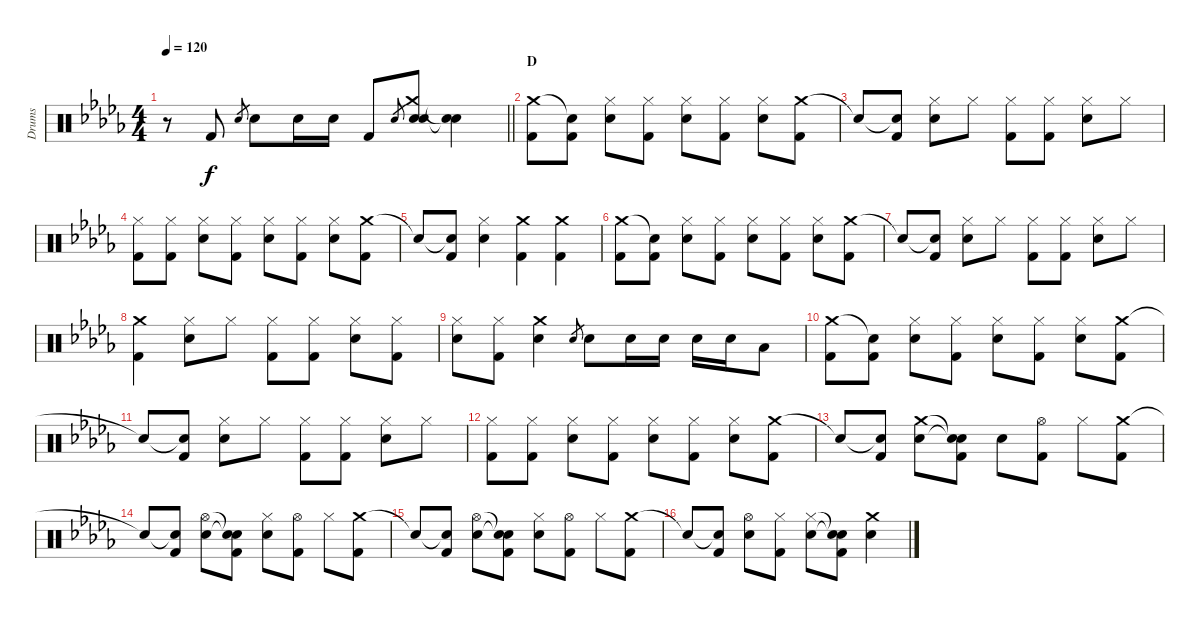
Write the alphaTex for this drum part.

\track ("Drums" "Drums") {instrument percussion}
\staff {score}
\articulation defaults
\ts (4 4)
\tempo 120
\clef neutral
\barLineRight lightlight
\ks db
r.8{dy f} "Kick (hit) 2".8 "Electric Snare (hit)".8{gr} "Electric Snare (hit)".8 "Electric Snare (hit)".16 "Electric Snare (hit)".16 "Kick (hit) 2".8 "Electric Snare (hit)".8{gr} ("Crash medium (hit)" "Electric Snare (hit)" "Snare (hit)").8 ("Snare (hit)"{t} "Snare (hit)"{t}).4 |
\section ("" "D")
("Crash medium (hit)" "Kick (hit) 2").8 ("Snare (hit)"{t} "Kick (hit) 2").8 ("Hi-Hat (closed)" "Electric Snare (hit)").8 ("Hi-Hat (closed)" "Kick (hit) 2").8 ("Hi-Hat (closed)" "Electric Snare (hit)").8 ("Hi-Hat (closed)" "Kick (hit) 2").8 ("Hi-Hat (closed)" "Electric Snare (hit)").8 ("Crash medium (hit)" "Kick (hit) 2").8 |
"Snare (hit)"{t}.8 ("Snare (hit)"{t} "Kick (hit) 2").8 ("Hi-Hat (closed)" "Electric Snare (hit)").8 "Hi-Hat (closed)".8 ("Hi-Hat (closed)" "Kick (hit) 2").8 ("Hi-Hat (closed)" "Kick (hit) 2").8 ("Hi-Hat (closed)" "Electric Snare (hit)").8 "Hi-Hat (closed)".8 |
("Hi-Hat (closed)" "Kick (hit) 2").8 ("Hi-Hat (closed)" "Kick (hit) 2").8 ("Hi-Hat (closed)" "Electric Snare (hit)").8 ("Hi-Hat (closed)" "Kick (hit) 2").8 ("Hi-Hat (closed)" "Electric Snare (hit)").8 ("Hi-Hat (closed)" "Kick (hit) 2").8 ("Hi-Hat (closed)" "Electric Snare (hit)").8 ("Crash medium (hit)" "Kick (hit) 2").8 |
"Snare (hit)"{t}.8 ("Snare (hit)"{t} "Kick (hit) 2").8 ("Hi-Hat (closed)" "Electric Snare (hit)").4 ("Crash medium (hit)" "Kick (hit) 2").4 ("Crash medium (hit)" "Kick (hit) 2").4 |
("Crash medium (hit)" "Kick (hit) 2").8 ("Snare (hit)"{t} "Kick (hit) 2").8 ("Hi-Hat (closed)" "Electric Snare (hit)").8 ("Hi-Hat (closed)" "Kick (hit) 2").8 ("Hi-Hat (closed)" "Electric Snare (hit)").8 ("Hi-Hat (closed)" "Kick (hit) 2").8 ("Hi-Hat (closed)" "Electric Snare (hit)").8 ("Crash medium (hit)" "Kick (hit) 2").8 |
"Snare (hit)"{t}.8 ("Snare (hit)"{t} "Kick (hit) 2").8 ("Hi-Hat (closed)" "Electric Snare (hit)").8 "Hi-Hat (closed)".8 ("Hi-Hat (closed)" "Kick (hit) 2").8 ("Hi-Hat (closed)" "Kick (hit) 2").8 ("Hi-Hat (closed)" "Electric Snare (hit)").8 "Hi-Hat (closed)".8 |
("Crash medium (hit)" "Kick (hit) 2").4 ("Hi-Hat (closed)" "Electric Snare (hit)").8 "Hi-Hat (closed)".8 ("Hi-Hat (closed)" "Kick (hit) 2").8 ("Hi-Hat (closed)" "Kick (hit) 2").8 ("Hi-Hat (closed)" "Electric Snare (hit)").8 ("Hi-Hat (closed)" "Kick (hit) 2").8 |
("Hi-Hat (closed)" "Electric Snare (hit)").8 ("Hi-Hat (closed)" "Kick (hit) 2").8 ("Crash medium (hit)" "Electric Snare (hit)").4 "Electric Snare (hit)".8{gr} "Electric Snare (hit)".8 "Electric Snare (hit)".16 "Electric Snare (hit)".16 "Electric Snare (hit)".16 "Electric Snare (hit)".16 "Low Tom (hit)".8 |
("Crash medium (hit)" "Kick (hit) 2").8 ("Snare (hit)"{t} "Kick (hit) 2").8 ("Hi-Hat (closed)" "Electric Snare (hit)").8 ("Hi-Hat (closed)" "Kick (hit) 2").8 ("Hi-Hat (closed)" "Electric Snare (hit)").8 ("Hi-Hat (closed)" "Kick (hit) 2").8 ("Hi-Hat (closed)" "Electric Snare (hit)").8 ("Crash medium (hit)" "Kick (hit) 2").8 |
"Snare (hit)"{t}.8 ("Snare (hit)"{t} "Kick (hit) 2").8 ("Hi-Hat (closed)" "Electric Snare (hit)").8 "Hi-Hat (closed)".8 ("Hi-Hat (closed)" "Kick (hit) 2").8 ("Hi-Hat (closed)" "Kick (hit) 2").8 ("Hi-Hat (closed)" "Electric Snare (hit)").8 "Hi-Hat (closed)".8 |
("Hi-Hat (closed)" "Kick (hit) 2").8 ("Hi-Hat (closed)" "Kick (hit) 2").8 ("Hi-Hat (closed)" "Electric Snare (hit)").8 ("Hi-Hat (closed)" "Kick (hit) 2").8 ("Hi-Hat (closed)" "Electric Snare (hit)").8 ("Hi-Hat (closed)" "Kick (hit) 2").8 ("Hi-Hat (closed)" "Electric Snare (hit)").8 ("Crash medium (hit)" "Kick (hit) 2").8 |
"Snare (hit)"{t}.8 ("Snare (hit)"{t} "Kick (hit) 2").8 ("Crash medium (hit)" "Electric Snare (hit)").8 ("Snare (hit)"{t} "Snare (hit)"{t} "Kick (hit) 2").8 "Electric Snare (hit)".8 ("Hi-Hat (open)" "Kick (hit) 2").8 "Hi-Hat (closed)".8 ("Crash medium (hit)" "Kick (hit) 2").8 |
"Snare (hit)"{t}.8 ("Snare (hit)"{t} "Kick (hit) 2").8 ("Hi-Hat (open)" "Electric Snare (hit)").8 ("Snare (hit)"{t} "Snare (hit)"{t} "Kick (hit) 2").8 ("Hi-Hat (closed)" "Electric Snare (hit)").8 ("Hi-Hat (open)" "Kick (hit) 2").8 "Hi-Hat (closed)".8 ("Crash medium (hit)" "Kick (hit) 2").8 |
"Snare (hit)"{t}.8 ("Snare (hit)"{t} "Kick (hit) 2").8 ("Hi-Hat (open)" "Electric Snare (hit)").8 ("Snare (hit)"{t} "Snare (hit)"{t} "Kick (hit) 2").8 ("Hi-Hat (closed)" "Electric Snare (hit)").8 ("Hi-Hat (open)" "Kick (hit) 2").8 "Hi-Hat (closed)".8 ("Crash medium (hit)" "Kick (hit) 2").8 |
"Snare (hit)"{t}.8 ("Snare (hit)"{t} "Kick (hit) 2").8 ("Hi-Hat (open)" "Electric Snare (hit)").8 ("Hi-Hat (closed)" "Kick (hit) 2").8 ("Hi-Hat (closed)" "Electric Snare (hit)").8 ("Snare (hit)"{t} "Snare (hit)"{t} "Kick (hit) 2").8 ("Crash medium (hit)" "Electric Snare (hit)").4
